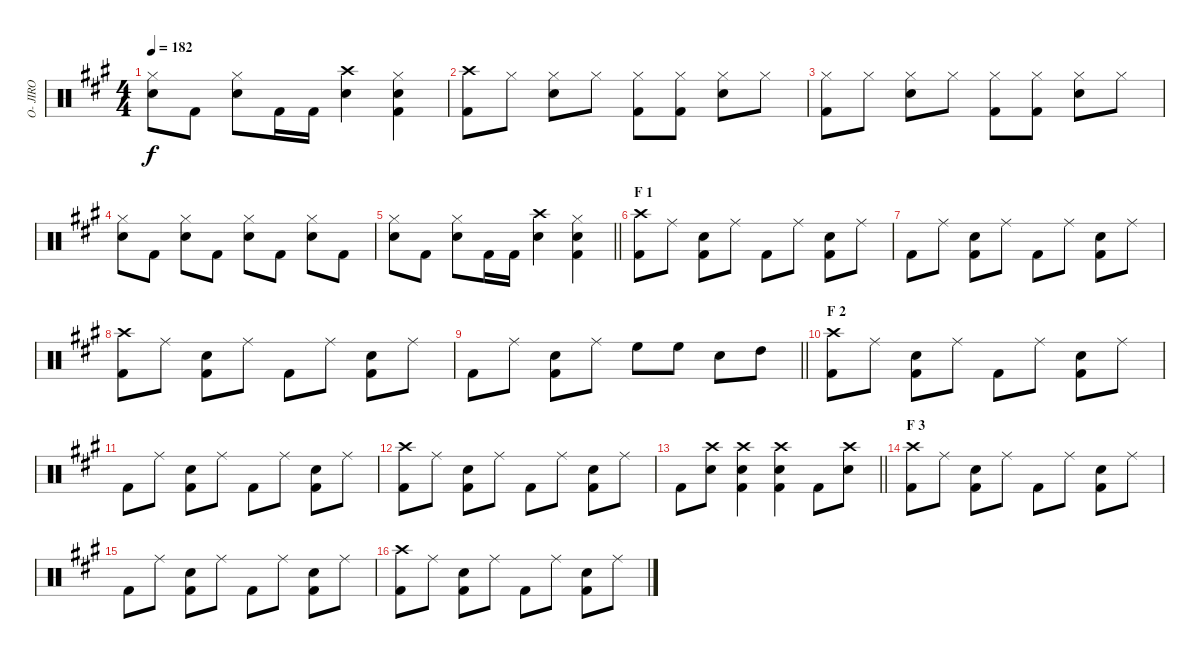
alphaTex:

\track ("O- JIRO" "O- JIRO") {instrument percussion}
\staff {score}
\articulation defaults
\ts (4 4)
\tempo 182
\clef neutral
\ks a
("Hi-Hat (closed)" "Snare (hit) 2").8{dy f} "Kick (hit) 2".8 ("Hi-Hat (closed)" "Snare (hit) 2").8 "Kick (hit) 2".16 "Kick (hit) 2".16 ("Crash high (hit)" "Snare (hit) 2").4 ("Hi-Hat (closed)" "Snare (hit) 2" "Kick (hit) 2").4 |
("Crash high (hit)" "Kick (hit) 2").8 "Hi-Hat (closed)".8 ("Hi-Hat (closed)" "Snare (hit) 2").8 "Hi-Hat (closed)".8 ("Hi-Hat (closed)" "Kick (hit) 2").8 ("Hi-Hat (closed)" "Kick (hit) 2").8 ("Hi-Hat (closed)" "Snare (hit) 2").8 "Hi-Hat (closed)".8 |
("Hi-Hat (closed)" "Kick (hit) 2").8 "Hi-Hat (closed)".8 ("Hi-Hat (closed)" "Snare (hit) 2").8 "Hi-Hat (closed)".8 ("Hi-Hat (closed)" "Kick (hit) 2").8 ("Hi-Hat (closed)" "Kick (hit) 2").8 ("Hi-Hat (closed)" "Snare (hit) 2").8 "Hi-Hat (closed)".8 |
("Hi-Hat (closed)" "Snare (hit) 2").8 "Kick (hit) 2".8 ("Hi-Hat (closed)" "Snare (hit) 2").8 "Kick (hit) 2".8 ("Hi-Hat (closed)" "Snare (hit) 2").8 "Kick (hit) 2".8 ("Hi-Hat (closed)" "Snare (hit) 2").8 "Kick (hit) 2".8 |
\barLineRight lightlight
("Hi-Hat (closed)" "Snare (hit) 2").8 "Kick (hit) 2".8 ("Hi-Hat (closed)" "Snare (hit) 2").8 "Kick (hit) 2".16 "Kick (hit) 2".16 ("Crash high (hit)" "Snare (hit) 2").4 ("Hi-Hat (closed)" "Snare (hit) 2" "Kick (hit) 2").4 |
\section ("" "F 1")
("Crash high (hit)" "Kick (hit) 2").8 "Ride (middle)".8 ("Snare (hit) 2" "Kick (hit) 2").8 "Ride (middle)".8 "Kick (hit) 2".8 "Ride (middle)".8 ("Snare (hit) 2" "Kick (hit) 2").8 "Ride (middle)".8 |
"Kick (hit) 2".8 "Ride (middle)".8 ("Snare (hit) 2" "Kick (hit) 2").8 "Ride (middle)".8 "Kick (hit) 2".8 "Ride (middle)".8 ("Snare (hit) 2" "Kick (hit) 2").8 "Ride (middle)".8 |
("Crash high (hit)" "Kick (hit) 2").8 "Ride (middle)".8 ("Snare (hit) 2" "Kick (hit) 2").8 "Ride (middle)".8 "Kick (hit) 2".8 "Ride (middle)".8 ("Snare (hit) 2" "Kick (hit) 2").8 "Ride (middle)".8 |
\barLineRight lightlight "Kick (hit) 2".8 "Ride (middle)".8
("Snare (hit) 2" "Kick (hit) 2").8 "Ride (middle)".8 "High Floor Tom (hit)".8 "High Floor Tom (hit)".8 "Snare (hit) 2".8 "High Tom (hit)".8 |
\section ("" "F 2")
("Crash high (hit)" "Kick (hit) 2").8 "Ride (middle)".8 ("Snare (hit) 2" "Kick (hit) 2").8 "Ride (middle)".8 "Kick (hit) 2".8 "Ride (middle)".8 ("Snare (hit) 2" "Kick (hit) 2").8 "Ride (middle)".8 |
"Kick (hit) 2".8 "Ride (middle)".8 ("Snare (hit) 2" "Kick (hit) 2").8 "Ride (middle)".8 "Kick (hit) 2".8 "Ride (middle)".8 ("Snare (hit) 2" "Kick (hit) 2").8 "Ride (middle)".8 |
("Crash high (hit)" "Kick (hit) 2").8 "Ride (middle)".8 ("Snare (hit) 2" "Kick (hit) 2").8 "Ride (middle)".8 "Kick (hit) 2".8 "Ride (middle)".8 ("Snare (hit) 2" "Kick (hit) 2").8 "Ride (middle)".8 |
\barLineRight lightlight "Kick (hit) 2".8
("Crash high (hit)" "Snare (hit) 2").8 ("Crash high (hit)" "Snare (hit) 2" "Kick (hit) 2").4 ("Crash high (hit)" "Snare (hit) 2" "Kick (hit) 2").4 "Kick (hit) 2".8 ("Crash high (hit)" "Snare (hit) 2").8 |
\section ("" "F 3")
("Crash high (hit)" "Kick (hit) 2").8 "Ride (middle)".8 ("Snare (hit) 2" "Kick (hit) 2").8 "Ride (middle)".8 "Kick (hit) 2".8 "Ride (middle)".8 ("Snare (hit) 2" "Kick (hit) 2").8 "Ride (middle)".8 |
"Kick (hit) 2".8 "Ride (middle)".8 ("Snare (hit) 2" "Kick (hit) 2").8 "Ride (middle)".8 "Kick (hit) 2".8 "Ride (middle)".8 ("Snare (hit) 2" "Kick (hit) 2").8 "Ride (middle)".8 |
("Crash high (hit)" "Kick (hit) 2").8 "Ride (middle)".8 ("Snare (hit) 2" "Kick (hit) 2").8 "Ride (middle)".8 "Kick (hit) 2".8 "Ride (middle)".8 ("Snare (hit) 2" "Kick (hit) 2").8 "Ride (middle)".8
